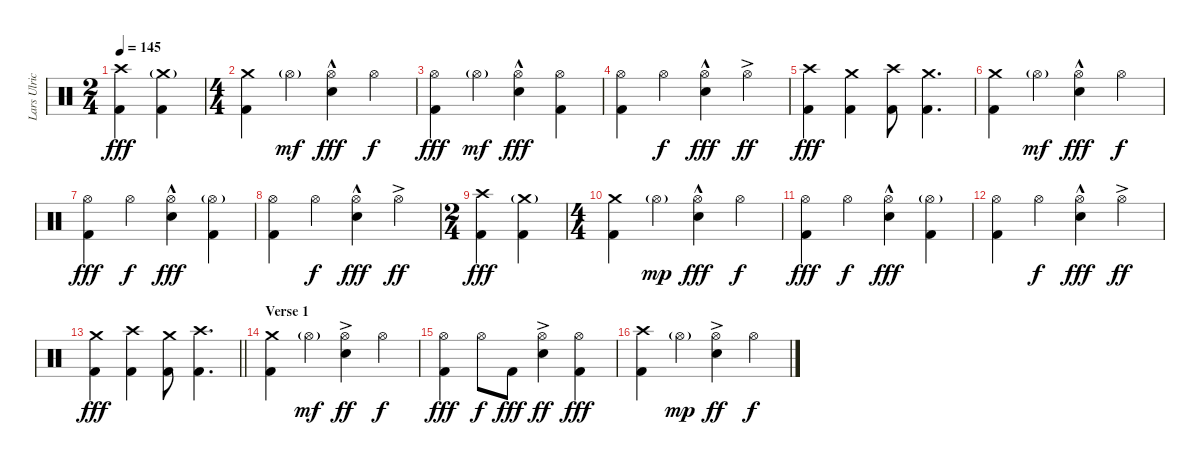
\track ("Lars Ulrich (Drums)" "Lars Ulric") {instrument percussion}
\staff {score}
\articulation defaults
\ts (2 4)
\tempo 145
\clef neutral
\ks c
("Crash high (hit)" "Kick (hit) 2").4{dy fff} ("Crash medium (hit)"{g} "Kick (hit) 2").4 |
\ts (4 4)
("Crash medium (hit)" "Kick (hit) 2").4 "Hi-Hat (open)"{g}.4{dy mf} ("Hi-Hat (open)"{hac} "Electric Snare (hit)"{hac}).4{dy fff} "Hi-Hat (open)".4{dy f} |
("Hi-Hat (open)" "Kick (hit) 2").4{dy fff} "Hi-Hat (open)"{g}.4{dy mf} ("Hi-Hat (open)"{hac} "Electric Snare (hit)"{hac}).4{dy fff} ("Hi-Hat (open)" "Kick (hit) 2").4 |
("Hi-Hat (open)" "Kick (hit) 2").4 "Hi-Hat (open)".4{dy f} ("Hi-Hat (open)"{hac} "Electric Snare (hit)"{hac}).4{dy fff} "Hi-Hat (open)"{ac}.4{dy ff} |
("Crash high (hit)" "Kick (hit) 2").4{dy fff} ("Crash medium (hit)" "Kick (hit) 2").4 ("Crash high (hit)" "Kick (hit) 2").8 ("Crash medium (hit)" "Kick (hit) 2").4{d} |
("Crash medium (hit)" "Kick (hit) 2").4 "Hi-Hat (open)"{g}.4{dy mf} ("Hi-Hat (open)"{hac} "Electric Snare (hit)"{hac}).4{dy fff} "Hi-Hat (open)".4{dy f} |
("Hi-Hat (open)" "Kick (hit) 2").4{dy fff} "Hi-Hat (open)".4{dy f} ("Hi-Hat (open)"{hac} "Electric Snare (hit)"{hac}).4{dy fff} ("Hi-Hat (open)"{g} "Kick (hit) 2").4 |
("Hi-Hat (open)" "Kick (hit) 2").4 "Hi-Hat (open)".4{dy f} ("Hi-Hat (open)"{hac} "Electric Snare (hit)"{hac}).4{dy fff} "Hi-Hat (open)"{ac}.4{dy ff} |
\ts (2 4)
("Crash high (hit)" "Kick (hit) 2").4{dy fff} ("Crash medium (hit)"{g} "Kick (hit) 2").4 |
\ts (4 4)
("Crash medium (hit)" "Kick (hit) 2").4 "Hi-Hat (open)"{g}.4{dy mp} ("Hi-Hat (open)"{hac} "Electric Snare (hit)"{hac}).4{dy fff} "Hi-Hat (open)".4{dy f} |
("Hi-Hat (open)" "Kick (hit) 2").4{dy fff} "Hi-Hat (open)".4{dy f} ("Hi-Hat (open)"{hac} "Electric Snare (hit)"{hac}).4{dy fff} ("Hi-Hat (open)"{g} "Kick (hit) 2").4 |
("Hi-Hat (open)" "Kick (hit) 2").4 "Hi-Hat (open)".4{dy f} ("Hi-Hat (open)"{hac} "Electric Snare (hit)"{hac}).4{dy fff} "Hi-Hat (open)"{ac}.4{dy ff} |
\barLineRight lightlight
("Crash medium (hit)" "Kick (hit) 2").4{dy fff} ("Crash high (hit)" "Kick (hit) 2").4 ("Crash medium (hit)" "Kick (hit) 2").8 ("Crash high (hit)" "Kick (hit) 2").4{d} |
\section ("" "Verse 1")
("Crash medium (hit)" "Kick (hit) 2").4 "Hi-Hat (open)"{g}.4{dy mf} ("Hi-Hat (open)"{ac} "Electric Snare (hit)"{ac}).4{dy ff} "Hi-Hat (open)".4{dy f} |
("Hi-Hat (open)" "Kick (hit) 2").4{dy fff} "Hi-Hat (open)".8{dy f} "Kick (hit) 2".8{dy fff} ("Hi-Hat (open)"{ac} "Electric Snare (hit)"{ac}).4{dy ff} ("Hi-Hat (open)" "Kick (hit) 2").4{dy fff} |
("Crash high (hit)" "Kick (hit) 2").4 "Hi-Hat (open)"{g}.4{dy mp} ("Hi-Hat (open)"{ac} "Electric Snare (hit)"{ac}).4{dy ff} "Hi-Hat (open)".4{dy f}
